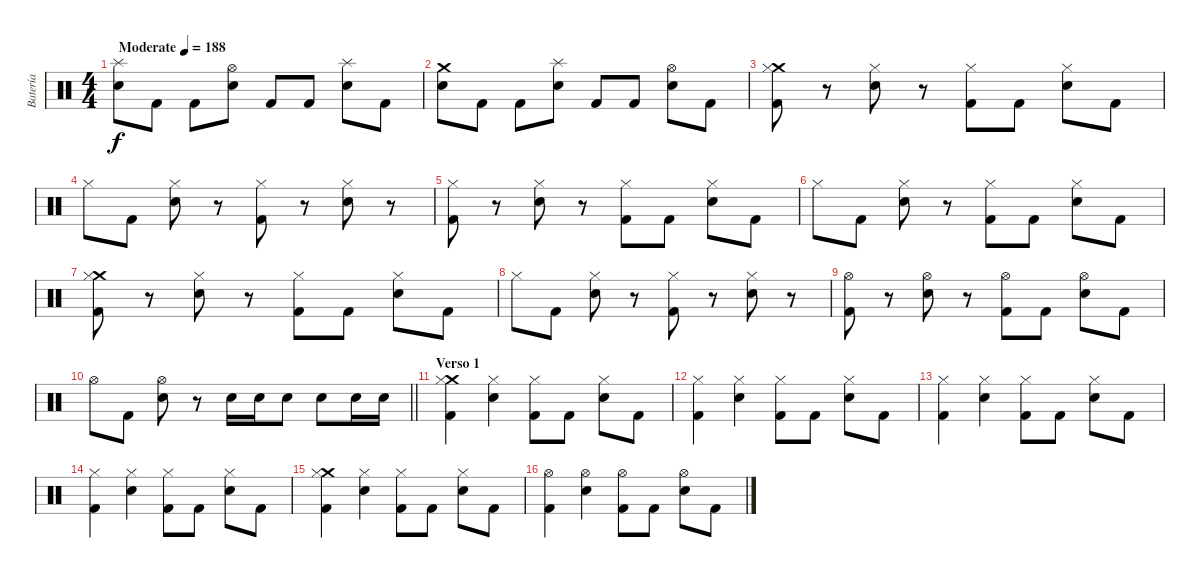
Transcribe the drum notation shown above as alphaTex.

\track ("Batería" "Batería") {instrument percussion}
\staff {score}
\articulation defaults
\ts (4 4)
\tempo (188 "Moderate")
\clef neutral
\ks c
("Splash (hit)" "Electric Snare (hit)").8{dy f} "Kick (hit) 2".8 "Kick (hit) 2".8 ("Hi-Hat (open)" "Electric Snare (hit)").8 "Kick (hit) 2".8 "Kick (hit) 2".8 ("Splash (hit)" "Electric Snare (hit)").8 "Kick (hit) 2".8 |
("Crash medium (hit)" "Electric Snare (hit)").8 "Kick (hit) 2".8 "Kick (hit) 2".8 ("Splash (hit)" "Electric Snare (hit)").8 "Kick (hit) 2".8 "Kick (hit) 2".8 ("Hi-Hat (open)" "Electric Snare (hit)").8 "Kick (hit) 2".8 |
("Crash medium (hit)" "Hi-Hat (closed)" "Kick (hit) 2").8 r.8 ("Hi-Hat (closed)" "Electric Snare (hit)").8 r.8 ("Hi-Hat (closed)" "Kick (hit) 2").8 "Kick (hit) 2".8 ("Hi-Hat (closed)" "Electric Snare (hit)").8 "Kick (hit) 2".8 |
"Hi-Hat (closed)".8 "Kick (hit) 2".8 ("Hi-Hat (closed)" "Electric Snare (hit)").8 r.8 ("Hi-Hat (closed)" "Kick (hit) 2").8 r.8 ("Hi-Hat (closed)" "Electric Snare (hit)").8 r.8 |
("Hi-Hat (closed)" "Kick (hit) 2").8 r.8 ("Hi-Hat (closed)" "Electric Snare (hit)").8 r.8 ("Hi-Hat (closed)" "Kick (hit) 2").8 "Kick (hit) 2".8 ("Hi-Hat (closed)" "Electric Snare (hit)").8 "Kick (hit) 2".8 |
"Hi-Hat (closed)".8 "Kick (hit) 2".8 ("Hi-Hat (closed)" "Electric Snare (hit)").8 r.8 ("Hi-Hat (closed)" "Kick (hit) 2").8 "Kick (hit) 2".8 ("Hi-Hat (closed)" "Electric Snare (hit)").8 "Kick (hit) 2".8 |
("Crash medium (hit)" "Hi-Hat (closed)" "Kick (hit) 2").8 r.8 ("Hi-Hat (closed)" "Electric Snare (hit)").8 r.8 ("Hi-Hat (closed)" "Kick (hit) 2").8 "Kick (hit) 2".8 ("Hi-Hat (closed)" "Electric Snare (hit)").8 "Kick (hit) 2".8 |
"Hi-Hat (closed)".8 "Kick (hit) 2".8 ("Hi-Hat (closed)" "Electric Snare (hit)").8 r.8 ("Hi-Hat (closed)" "Kick (hit) 2").8 r.8 ("Hi-Hat (closed)" "Electric Snare (hit)").8 r.8 |
("Hi-Hat (open)" "Kick (hit) 2").8 r.8 ("Hi-Hat (open)" "Electric Snare (hit)").8 r.8 ("Hi-Hat (open)" "Kick (hit) 2").8 "Kick (hit) 2".8 ("Hi-Hat (open)" "Electric Snare (hit)").8 "Kick (hit) 2".8 |
\barLineRight lightlight "Hi-Hat (open)".8 "Kick (hit) 2".8
("Hi-Hat (open)" "Electric Snare (hit)").8 r.8 "Electric Snare (hit)".16 "Electric Snare (hit)".16 "Electric Snare (hit)".8 "Electric Snare (hit)".8 "Electric Snare (hit)".16 "Electric Snare (hit)".16 |
\section ("" "Verso 1")
("Crash medium (hit)" "Hi-Hat (closed)" "Kick (hit) 2").4 ("Hi-Hat (closed)" "Electric Snare (hit)").4 ("Hi-Hat (closed)" "Kick (hit) 2").8 "Kick (hit) 2".8 ("Hi-Hat (closed)" "Electric Snare (hit)").8 "Kick (hit) 2".8 |
("Hi-Hat (closed)" "Kick (hit) 2").4 ("Hi-Hat (closed)" "Electric Snare (hit)").4 ("Hi-Hat (closed)" "Kick (hit) 2").8 "Kick (hit) 2".8 ("Hi-Hat (closed)" "Electric Snare (hit)").8 "Kick (hit) 2".8 |
("Hi-Hat (closed)" "Kick (hit) 2").4 ("Hi-Hat (closed)" "Electric Snare (hit)").4 ("Hi-Hat (closed)" "Kick (hit) 2").8 "Kick (hit) 2".8 ("Hi-Hat (closed)" "Electric Snare (hit)").8 "Kick (hit) 2".8 |
("Hi-Hat (closed)" "Kick (hit) 2").4 ("Hi-Hat (closed)" "Electric Snare (hit)").4 ("Hi-Hat (closed)" "Kick (hit) 2").8 "Kick (hit) 2".8 ("Hi-Hat (closed)" "Electric Snare (hit)").8 "Kick (hit) 2".8 |
("Crash medium (hit)" "Hi-Hat (closed)" "Kick (hit) 2").4 ("Hi-Hat (closed)" "Electric Snare (hit)").4 ("Hi-Hat (closed)" "Kick (hit) 2").8 "Kick (hit) 2".8 ("Hi-Hat (closed)" "Electric Snare (hit)").8 "Kick (hit) 2".8 |
("Hi-Hat (open)" "Kick (hit) 2").4 ("Hi-Hat (open)" "Electric Snare (hit)").4 ("Hi-Hat (open)" "Kick (hit) 2").8 "Kick (hit) 2".8 ("Hi-Hat (open)" "Electric Snare (hit)").8 "Kick (hit) 2".8
